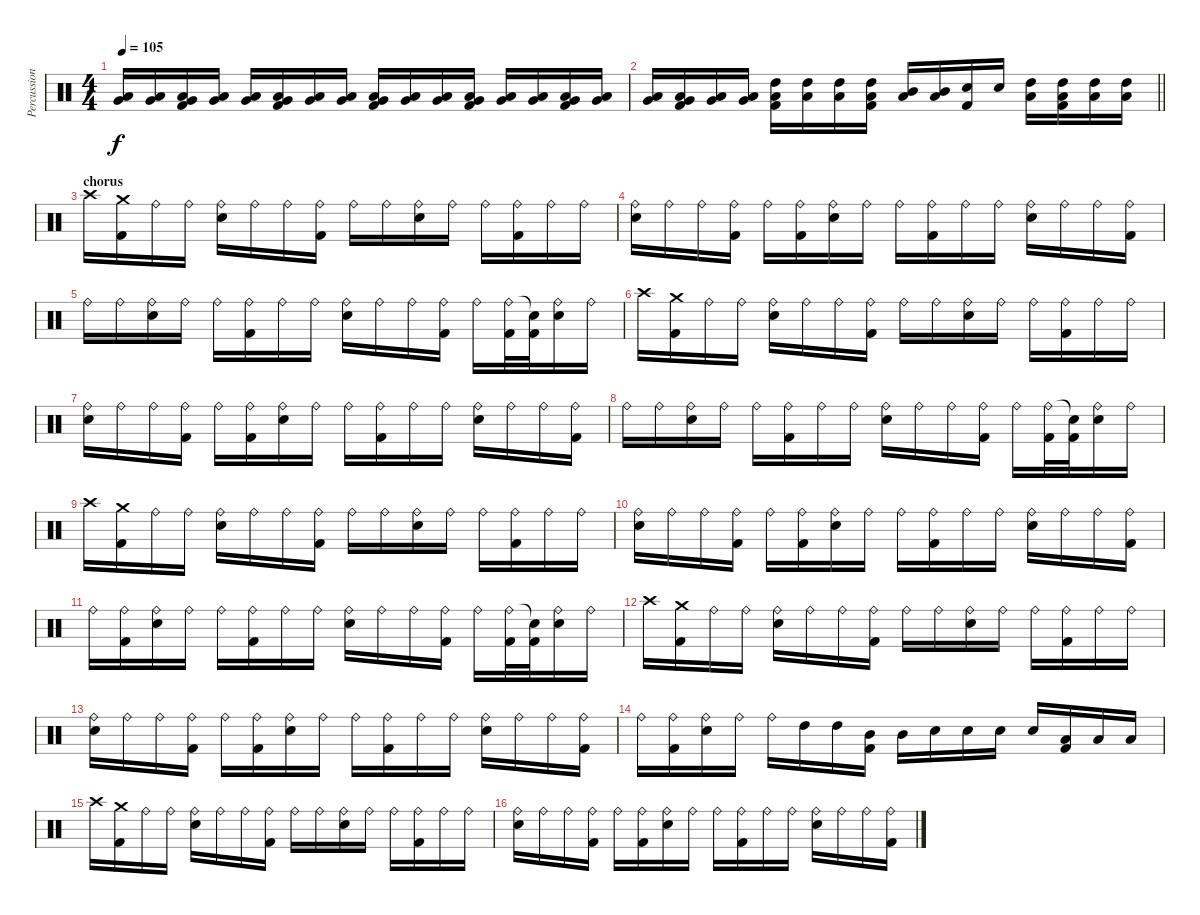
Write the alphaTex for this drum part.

\track ("Percussions" "Percussion") {instrument percussion}
\staff {score}
\articulation defaults
\ts (4 4)
\tempo 105
\clef neutral
\ks c
("Very Low Tom (hit)" "Low Tom (hit)").16{dy f} ("Very Low Tom (hit)" "Low Tom (hit)").16 ("Very Low Tom (hit)" "Low Tom (hit)" "Kick (hit) 2").16 ("Very Low Tom (hit)" "Low Tom (hit)").16 ("Very Low Tom (hit)" "Low Tom (hit)").16 ("Very Low Tom (hit)" "Low Tom (hit)" "Kick (hit) 2").16 ("Very Low Tom (hit)" "Low Tom (hit)").16 ("Very Low Tom (hit)" "Low Tom (hit)").16 ("Very Low Tom (hit)" "Low Tom (hit)" "Kick (hit) 2").16 ("Very Low Tom (hit)" "Low Tom (hit)").16 ("Very Low Tom (hit)" "Low Tom (hit)").16 ("Very Low Tom (hit)" "Low Tom (hit)" "Kick (hit) 2").16 ("Very Low Tom (hit)" "Low Tom (hit)").16 ("Very Low Tom (hit)" "Low Tom (hit)").16 ("Very Low Tom (hit)" "Low Tom (hit)" "Kick (hit) 2").16 ("Very Low Tom (hit)" "Low Tom (hit)").16 |
\barLineRight lightlight
("Very Low Tom (hit)" "Low Tom (hit)").16 ("Very Low Tom (hit)" "Low Tom (hit)" "Kick (hit) 2").16 ("Very Low Tom (hit)" "Low Tom (hit)").16 ("Very Low Tom (hit)" "Low Tom (hit)").16 ("High Tom (hit)" "Low Tom (hit)" "Kick (hit) 2").16 ("High Tom (hit)" "Low Tom (hit)").16 ("High Tom (hit)" "Low Tom (hit)").16 ("High Tom (hit)" "Low Tom (hit)" "Kick (hit) 2").16 ("Mid Tom (hit)" "Low Tom (hit)").16 ("Mid Tom (hit)" "Low Tom (hit)").16 ("Snare (hit) 2" "Kick (hit) 2").16 "Snare (hit) 2".16 ("High Tom (hit)" "Low Tom (hit)").16 ("High Tom (hit)" "Low Tom (hit)" "Kick (hit) 2").16 ("High Tom (hit)" "Low Tom (hit)").16 ("High Tom (hit)" "Low Tom (hit)").16 |
\section ("" "chorus")
"Crash high (hit)".16 ("Crash medium (hit)" "Kick (hit) 2").16 "Ride (bell)".16 "Ride (bell)".16 ("Ride (bell)" "Snare (hit) 2").16 "Ride (bell)".16 "Ride (bell)".16 ("Ride (bell)" "Kick (hit) 2").16 "Ride (bell)".16 "Ride (bell)".16 ("Ride (bell)" "Snare (hit) 2").16 "Ride (bell)".16 "Ride (bell)".16 ("Ride (bell)" "Kick (hit) 2").16 "Ride (bell)".16 "Ride (bell)".16 |
("Ride (bell)" "Snare (hit) 2").16 "Ride (bell)".16 "Ride (bell)".16 ("Ride (bell)" "Kick (hit) 2").16 "Ride (bell)".16 ("Ride (bell)" "Kick (hit) 2").16 ("Ride (bell)" "Snare (hit) 2").16 "Ride (bell)".16 "Ride (bell)".16 ("Ride (bell)" "Kick (hit) 2").16 "Ride (bell)".16 "Ride (bell)".16 ("Ride (bell)" "Snare (hit) 2").16 "Ride (bell)".16 "Ride (bell)".16 ("Ride (bell)" "Kick (hit) 2").16 |
"Ride (bell)".16 "Ride (bell)".16 ("Ride (bell)" "Snare (hit) 2").16 "Ride (bell)".16 "Ride (bell)".16 ("Ride (bell)" "Kick (hit) 2").16 "Ride (bell)".16 "Ride (bell)".16 ("Ride (bell)" "Snare (hit) 2").16 "Ride (bell)".16 "Ride (bell)".16 ("Ride (bell)" "Kick (hit) 2").16 "Ride (bell)".16 ("Ride (bell)" "Kick (hit) 2").32 ("Snare (hit)"{t} "Kick (hit) 2").32 ("Ride (bell)" "Snare (hit) 2").16 "Ride (bell)".16 |
"Crash high (hit)".16 ("Crash medium (hit)" "Kick (hit) 2").16 "Ride (bell)".16 "Ride (bell)".16 ("Ride (bell)" "Snare (hit) 2").16 "Ride (bell)".16 "Ride (bell)".16 ("Ride (bell)" "Kick (hit) 2").16 "Ride (bell)".16 "Ride (bell)".16 ("Ride (bell)" "Snare (hit) 2").16 "Ride (bell)".16 "Ride (bell)".16 ("Ride (bell)" "Kick (hit) 2").16 "Ride (bell)".16 "Ride (bell)".16 |
("Ride (bell)" "Snare (hit) 2").16 "Ride (bell)".16 "Ride (bell)".16 ("Ride (bell)" "Kick (hit) 2").16 "Ride (bell)".16 ("Ride (bell)" "Kick (hit) 2").16 ("Ride (bell)" "Snare (hit) 2").16 "Ride (bell)".16 "Ride (bell)".16 ("Ride (bell)" "Kick (hit) 2").16 "Ride (bell)".16 "Ride (bell)".16 ("Ride (bell)" "Snare (hit) 2").16 "Ride (bell)".16 "Ride (bell)".16 ("Ride (bell)" "Kick (hit) 2").16 |
"Ride (bell)".16 "Ride (bell)".16 ("Ride (bell)" "Snare (hit) 2").16 "Ride (bell)".16 "Ride (bell)".16 ("Ride (bell)" "Kick (hit) 2").16 "Ride (bell)".16 "Ride (bell)".16 ("Ride (bell)" "Snare (hit) 2").16 "Ride (bell)".16 "Ride (bell)".16 ("Ride (bell)" "Kick (hit) 2").16 "Ride (bell)".16 ("Ride (bell)" "Kick (hit) 2").32 ("Snare (hit)"{t} "Kick (hit) 2").32 ("Ride (bell)" "Snare (hit) 2").16 "Ride (bell)".16 |
"Crash high (hit)".16 ("Crash medium (hit)" "Kick (hit) 2").16 "Ride (bell)".16 "Ride (bell)".16 ("Ride (bell)" "Snare (hit) 2").16 "Ride (bell)".16 "Ride (bell)".16 ("Ride (bell)" "Kick (hit) 2").16 "Ride (bell)".16 "Ride (bell)".16 ("Ride (bell)" "Snare (hit) 2").16 "Ride (bell)".16 "Ride (bell)".16 ("Ride (bell)" "Kick (hit) 2").16 "Ride (bell)".16 "Ride (bell)".16 |
("Ride (bell)" "Snare (hit) 2").16 "Ride (bell)".16 "Ride (bell)".16 ("Ride (bell)" "Kick (hit) 2").16 "Ride (bell)".16 ("Ride (bell)" "Kick (hit) 2").16 ("Ride (bell)" "Snare (hit) 2").16 "Ride (bell)".16 "Ride (bell)".16 ("Ride (bell)" "Kick (hit) 2").16 "Ride (bell)".16 "Ride (bell)".16 ("Ride (bell)" "Snare (hit) 2").16 "Ride (bell)".16 "Ride (bell)".16 ("Ride (bell)" "Kick (hit) 2").16 |
"Ride (bell)".16 ("Ride (bell)" "Kick (hit) 2").16 ("Ride (bell)" "Snare (hit) 2").16 "Ride (bell)".16 "Ride (bell)".16 ("Ride (bell)" "Kick (hit) 2").16 "Ride (bell)".16 "Ride (bell)".16 ("Ride (bell)" "Snare (hit) 2").16 "Ride (bell)".16 "Ride (bell)".16 ("Ride (bell)" "Kick (hit) 2").16 "Ride (bell)".16 ("Ride (bell)" "Kick (hit) 2").32 ("Snare (hit)"{t} "Kick (hit) 2").32 ("Ride (bell)" "Snare (hit) 2").16 "Ride (bell)".16 |
"Crash high (hit)".16 ("Crash medium (hit)" "Kick (hit) 2").16 "Ride (bell)".16 "Ride (bell)".16 ("Ride (bell)" "Snare (hit) 2").16 "Ride (bell)".16 "Ride (bell)".16 ("Ride (bell)" "Kick (hit) 2").16 "Ride (bell)".16 "Ride (bell)".16 ("Ride (bell)" "Snare (hit) 2").16 "Ride (bell)".16 "Ride (bell)".16 ("Ride (bell)" "Kick (hit) 2").16 "Ride (bell)".16 "Ride (bell)".16 |
("Ride (bell)" "Snare (hit) 2").16 "Ride (bell)".16 "Ride (bell)".16 ("Ride (bell)" "Kick (hit) 2").16 "Ride (bell)".16 ("Ride (bell)" "Kick (hit) 2").16 ("Ride (bell)" "Snare (hit) 2").16 "Ride (bell)".16 "Ride (bell)".16 ("Ride (bell)" "Kick (hit) 2").16 "Ride (bell)".16 "Ride (bell)".16 ("Ride (bell)" "Snare (hit) 2").16 "Ride (bell)".16 "Ride (bell)".16 ("Ride (bell)" "Kick (hit) 2").16 |
"Ride (bell)".16 ("Ride (bell)" "Kick (hit) 2").16 ("Ride (bell)" "Snare (hit) 2").16 "Ride (bell)".16 "Ride (bell)".16 "High Tom (hit)".16 "High Tom (hit)".16 ("Mid Tom (hit)" "Kick (hit) 2").16 "Mid Tom (hit)".16 "Snare (hit) 2".16 "Snare (hit) 2".16 "Snare (hit) 2".16 "Snare (hit) 2".16 ("Low Tom (hit)" "Kick (hit) 2").16 "Low Tom (hit)".16 "Low Tom (hit)".16 |
"Crash high (hit)".16 ("Crash medium (hit)" "Kick (hit) 2").16 "Ride (bell)".16 "Ride (bell)".16 ("Ride (bell)" "Snare (hit) 2").16 "Ride (bell)".16 "Ride (bell)".16 ("Ride (bell)" "Kick (hit) 2").16 "Ride (bell)".16 "Ride (bell)".16 ("Ride (bell)" "Snare (hit) 2").16 "Ride (bell)".16 "Ride (bell)".16 ("Ride (bell)" "Kick (hit) 2").16 "Ride (bell)".16 "Ride (bell)".16 |
("Ride (bell)" "Snare (hit) 2").16 "Ride (bell)".16 "Ride (bell)".16 ("Ride (bell)" "Kick (hit) 2").16 "Ride (bell)".16 ("Ride (bell)" "Kick (hit) 2").16 ("Ride (bell)" "Snare (hit) 2").16 "Ride (bell)".16 "Ride (bell)".16 ("Ride (bell)" "Kick (hit) 2").16 "Ride (bell)".16 "Ride (bell)".16 ("Ride (bell)" "Snare (hit) 2").16 "Ride (bell)".16 "Ride (bell)".16 ("Ride (bell)" "Kick (hit) 2").16
